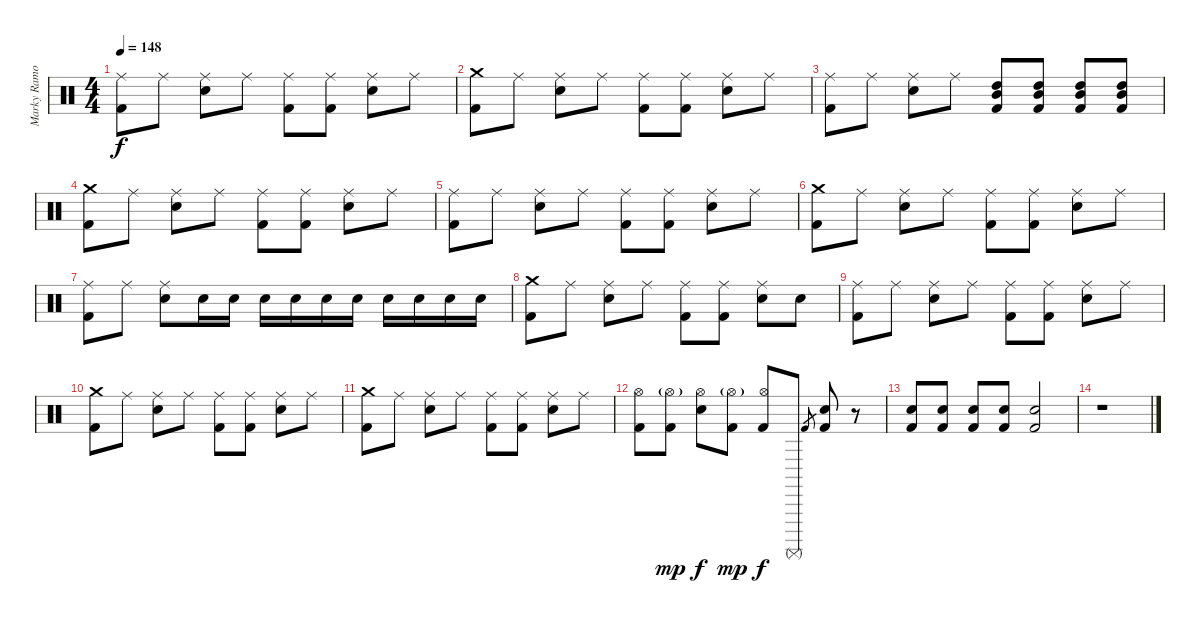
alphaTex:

\track ("Marky Ramone - Drums" "Marky Ramo") {instrument percussion}
\staff {score}
\articulation defaults
\ts (4 4)
\tempo 148
\clef neutral
\ks c
("Ride (middle)" "Kick (hit) 2").8{dy f} "Ride (middle)".8 ("Ride (middle)" "Electric Snare (hit)").8 "Ride (middle)".8 ("Ride (middle)" "Kick (hit) 2").8 ("Ride (middle)" "Kick (hit) 2").8 ("Ride (middle)" "Electric Snare (hit)").8 "Ride (middle)".8 |
("Crash medium (hit)" "Kick (hit) 2").8 "Ride (middle)".8 ("Ride (middle)" "Electric Snare (hit)").8 "Ride (middle)".8 ("Ride (middle)" "Kick (hit) 2").8 ("Ride (middle)" "Kick (hit) 2").8 ("Ride (middle)" "Electric Snare (hit)").8 "Ride (middle)".8 |
("Ride (middle)" "Kick (hit) 2").8 "Ride (middle)".8 ("Ride (middle)" "Electric Snare (hit)").8 "Ride (middle)".8 ("High Tom (hit)" "Kick (hit) 2" "Mid Tom (hit)").8 ("High Tom (hit)" "Kick (hit) 2" "Mid Tom (hit)").8 ("High Tom (hit)" "Kick (hit) 2" "Mid Tom (hit)").8 ("High Tom (hit)" "Kick (hit) 2" "Mid Tom (hit)").8 |
("Crash medium (hit)" "Kick (hit) 2").8 "Ride (middle)".8 ("Ride (middle)" "Electric Snare (hit)").8 "Ride (middle)".8 ("Ride (middle)" "Kick (hit) 2").8 ("Ride (middle)" "Kick (hit) 2").8 ("Ride (middle)" "Electric Snare (hit)").8 "Ride (middle)".8 |
("Ride (middle)" "Kick (hit) 2").8 "Ride (middle)".8 ("Ride (middle)" "Electric Snare (hit)").8 "Ride (middle)".8 ("Ride (middle)" "Kick (hit) 2").8 ("Ride (middle)" "Kick (hit) 2").8 ("Ride (middle)" "Electric Snare (hit)").8 "Ride (middle)".8 |
("Crash medium (hit)" "Kick (hit) 2").8 "Ride (middle)".8 ("Ride (middle)" "Electric Snare (hit)").8 "Ride (middle)".8 ("Ride (middle)" "Kick (hit) 2").8 ("Ride (middle)" "Kick (hit) 2").8 ("Ride (middle)" "Electric Snare (hit)").8 "Ride (middle)".8 |
("Ride (middle)" "Kick (hit) 2").8 "Ride (middle)".8 ("Ride (middle)" "Electric Snare (hit)").8 "Electric Snare (hit)".16 "Electric Snare (hit)".16 "Electric Snare (hit)".16 "Electric Snare (hit)".16 "Electric Snare (hit)".16 "Electric Snare (hit)".16 "Electric Snare (hit)".16 "Electric Snare (hit)".16 "Electric Snare (hit)".16 "Electric Snare (hit)".16 |
("Crash medium (hit)" "Kick (hit) 2").8 "Ride (middle)".8 ("Ride (middle)" "Electric Snare (hit)").8 "Ride (middle)".8 ("Ride (middle)" "Kick (hit) 2").8 ("Ride (middle)" "Kick (hit) 2").8 ("Ride (middle)" "Electric Snare (hit)").8 "Snare (hit)".8 |
("Ride (middle)" "Kick (hit) 2").8 "Ride (middle)".8 ("Ride (middle)" "Electric Snare (hit)").8 "Ride (middle)".8 ("Ride (middle)" "Kick (hit) 2").8 ("Ride (middle)" "Kick (hit) 2").8 ("Ride (middle)" "Electric Snare (hit)").8 "Ride (middle)".8 |
("Crash medium (hit)" "Kick (hit) 2").8 "Ride (middle)".8 ("Ride (middle)" "Electric Snare (hit)").8 "Ride (middle)".8 ("Ride (middle)" "Kick (hit) 2").8 ("Ride (middle)" "Kick (hit) 2").8 ("Ride (middle)" "Electric Snare (hit)").8 "Ride (middle)".8 |
("Crash medium (hit)" "Kick (hit) 2").8 "Ride (middle)".8 ("Ride (middle)" "Electric Snare (hit)").8 "Ride (middle)".8 ("Ride (middle)" "Kick (hit) 2").8 ("Ride (middle)" "Kick (hit) 2").8 ("Ride (middle)" "Electric Snare (hit)").8 "Ride (middle)".8 |
("Hi-Hat (open)" "Kick (hit) 2").8 ("Hi-Hat (open)"{g} "Kick (hit) 2").8{dy mp} ("Hi-Hat (open)" "Electric Snare (hit)").8{dy f} ("Hi-Hat (open)"{g} "Kick (hit) 2").8{dy mp} ("Hi-Hat (open)" "Kick (hit) 2").8{dy f} "Surdo (mute)".8 "Kick (hit) 2".8{gr} ("Electric Snare (hit)" "Kick (hit) 2").8{bd 480} r.8 |
("Kick (hit) 2" "Electric Snare (hit)").8 ("Kick (hit) 2" "Electric Snare (hit)").8 ("Kick (hit) 2" "Electric Snare (hit)").8 ("Kick (hit) 2" "Electric Snare (hit)").8 ("Kick (hit) 2" "Electric Snare (hit)").2 |
r.1
